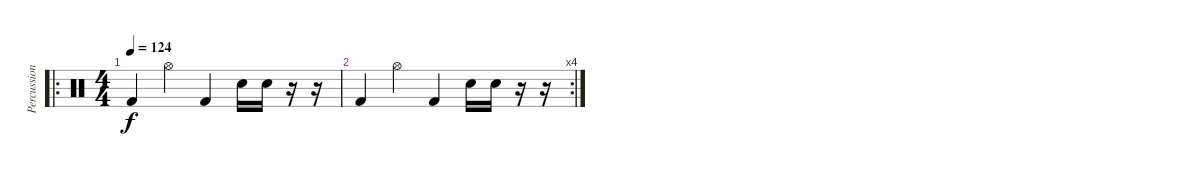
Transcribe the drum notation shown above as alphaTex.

\track ("Percussion" "Percussion") {instrument percussion}
\staff {score}
\articulation defaults
\ro
\ts (4 4)
\tempo 124
\clef neutral
\ks c "Kick (hit) 2".4{dy f} "Hi-Hat (open)".4 "Kick (hit) 2".4 "Electric Snare (hit)".16 "Electric Snare (hit)".16
r.16 r.16 |
\rc 4 "Kick (hit) 2".4 "Hi-Hat (open)".4 "Kick (hit) 2".4 "Electric Snare (hit)".16 "Electric Snare (hit)".16
r.16 r.16
